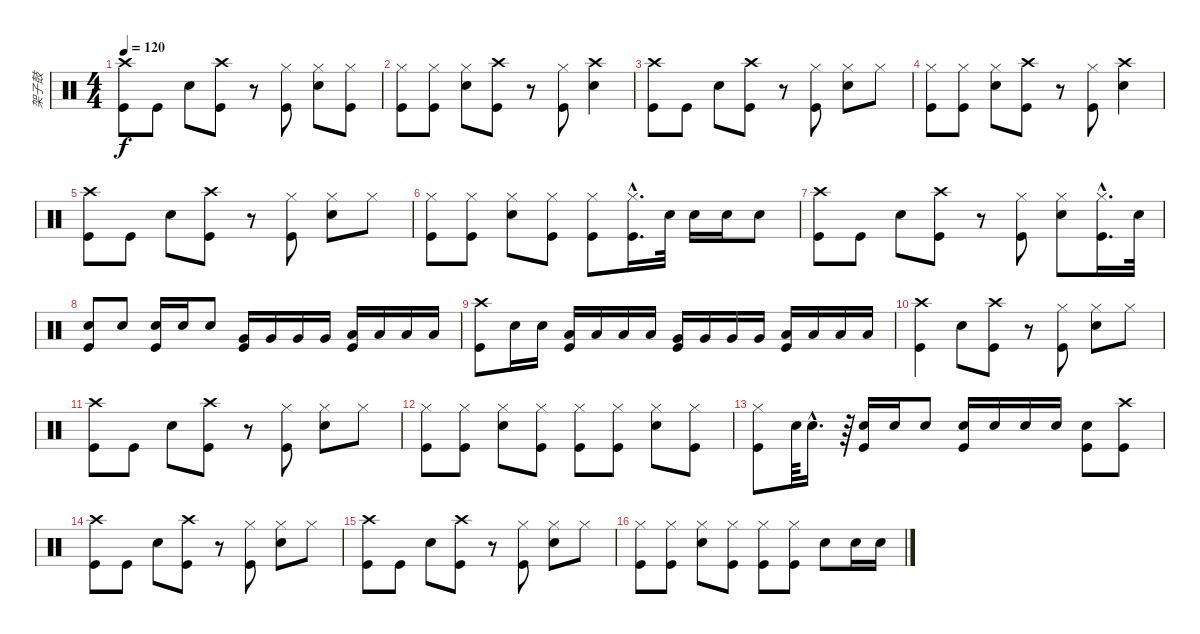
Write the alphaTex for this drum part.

\track ("架子鼓" "架子鼓") {instrument percussion}
\staff {score}
\articulation defaults
\ts (4 4)
\tempo 120
\clef neutral
\ks c
("Crash high (hit)" "Kick (hit)").8{dy f} "Kick (hit)".8 "Snare (hit) 2".8 ("Crash high (hit)" "Kick (hit)").8 r.8 ("Hi-Hat (closed)" "Kick (hit)").8 ("Hi-Hat (closed)" "Snare (hit) 2").8 ("Hi-Hat (closed)" "Kick (hit)").8 |
("Hi-Hat (closed)" "Kick (hit)").8 ("Hi-Hat (closed)" "Kick (hit)").8 ("Hi-Hat (closed)" "Snare (hit) 2").8 ("Crash high (hit)" "Kick (hit)").8 r.8 ("Hi-Hat (closed)" "Kick (hit)").8 ("Crash high (hit)" "Snare (hit) 2").4 |
("Crash high (hit)" "Kick (hit)").8 "Kick (hit)".8 "Snare (hit) 2".8 ("Crash high (hit)" "Kick (hit)").8 r.8 ("Hi-Hat (closed)" "Kick (hit)").8 ("Hi-Hat (closed)" "Snare (hit) 2").8 "Hi-Hat (closed)".8 |
("Hi-Hat (closed)" "Kick (hit)").8 ("Hi-Hat (closed)" "Kick (hit)").8 ("Hi-Hat (closed)" "Snare (hit) 2").8 ("Crash high (hit)" "Kick (hit)").8 r.8 ("Hi-Hat (closed)" "Kick (hit)").8 ("Crash high (hit)" "Snare (hit) 2").4 |
("Crash high (hit)" "Kick (hit)").8 "Kick (hit)".8 "Snare (hit) 2".8 ("Crash high (hit)" "Kick (hit)").8 r.8 ("Hi-Hat (closed)" "Kick (hit)").8 ("Hi-Hat (closed)" "Snare (hit) 2").8 "Hi-Hat (closed)".8 |
("Hi-Hat (closed)" "Kick (hit)").8 ("Hi-Hat (closed)" "Kick (hit)").8 ("Hi-Hat (closed)" "Snare (hit) 2").8 ("Hi-Hat (closed)" "Kick (hit)").8 ("Hi-Hat (closed)" "Kick (hit)").8 ("Hi-Hat (closed)"{hac} "Kick (hit)"{hac}).16{d} "Snare (hit) 2".32 "Snare (hit) 2".16 "Snare (hit) 2".16 "Snare (hit) 2".8 |
("Crash high (hit)" "Kick (hit)").8 "Kick (hit)".8 "Snare (hit) 2".8 ("Crash high (hit)" "Kick (hit)").8 r.8 ("Hi-Hat (closed)" "Kick (hit)").8 ("Hi-Hat (closed)" "Snare (hit) 2").8 ("Hi-Hat (closed)"{hac} "Kick (hit)"{hac}).16{d} "Snare (hit) 2".32 |
("Snare (hit) 2" "Kick (hit)").8 "Snare (hit) 2".8 ("Snare (hit) 2" "Kick (hit)").16 "Snare (hit) 2".16 "Snare (hit) 2".8 ("Kick (hit)" "Very Low Tom (hit)").16 "Very Low Tom (hit)".16 "Very Low Tom (hit)".16 "Very Low Tom (hit)".16 ("Kick (hit)" "Low Floor Tom (hit)").16 "Low Floor Tom (hit)".16 "Low Floor Tom (hit)".16 "Low Floor Tom (hit)".16 |
("Crash high (hit)" "Kick (hit)").8 "Snare (hit) 2".16 "Snare (hit) 2".16 ("Kick (hit)" "Low Tom (hit)").16 "Low Tom (hit)".16 "Low Tom (hit)".16 "Low Tom (hit)".16 ("Kick (hit)" "Very Low Tom (hit)").16 "Very Low Tom (hit)".16 "Very Low Tom (hit)".16 "Very Low Tom (hit)".16 ("Kick (hit)" "Low Floor Tom (hit)").16 "Low Floor Tom (hit)".16 "Low Floor Tom (hit)".16 "Low Floor Tom (hit)".16 |
("Crash high (hit)" "Kick (hit)").4 "Snare (hit) 2".8 ("Crash high (hit)" "Kick (hit)").8 r.8 ("Hi-Hat (closed)" "Kick (hit)").8 ("Hi-Hat (closed)" "Snare (hit) 2").8 "Hi-Hat (closed)".8 |
("Crash high (hit)" "Kick (hit)").8 "Kick (hit)".8 "Snare (hit) 2".8 ("Crash high (hit)" "Kick (hit)").8 r.8 ("Hi-Hat (closed)" "Kick (hit)").8 ("Hi-Hat (closed)" "Snare (hit) 2").8 "Hi-Hat (closed)".8 |
("Hi-Hat (closed)" "Kick (hit)").8 ("Hi-Hat (closed)" "Kick (hit)").8 ("Hi-Hat (closed)" "Snare (hit) 2").8 ("Hi-Hat (closed)" "Kick (hit)").8 ("Hi-Hat (closed)" "Kick (hit)").8 ("Hi-Hat (closed)" "Kick (hit)").8 ("Hi-Hat (closed)" "Snare (hit) 2").8 ("Hi-Hat (closed)" "Kick (hit)").8 |
("Hi-Hat (closed)" "Kick (hit)").8 "Snare (hit) 2".64 "Snare (hit) 2"{hac}.16{d} r.64 ("Snare (hit) 2" "Kick (hit)").16 "Snare (hit) 2".16 "Snare (hit) 2".8 ("Snare (hit) 2" "Kick (hit)").16 "Snare (hit) 2".16 "Snare (hit) 2".16 "Snare (hit) 2".16 ("Snare (hit) 2" "Kick (hit)").8 ("Crash high (hit)" "Kick (hit)").8 |
("Crash high (hit)" "Kick (hit)").8 "Kick (hit)".8 "Snare (hit) 2".8 ("Crash high (hit)" "Kick (hit)").8 r.8 ("Hi-Hat (closed)" "Kick (hit)").8 ("Hi-Hat (closed)" "Snare (hit) 2").8 "Hi-Hat (closed)".8 |
("Crash high (hit)" "Kick (hit)").8 "Kick (hit)".8 "Snare (hit) 2".8 ("Crash high (hit)" "Kick (hit)").8 r.8 ("Hi-Hat (closed)" "Kick (hit)").8 ("Hi-Hat (closed)" "Snare (hit) 2").8 "Hi-Hat (closed)".8 |
("Hi-Hat (closed)" "Kick (hit)").8 ("Hi-Hat (closed)" "Kick (hit)").8 ("Hi-Hat (closed)" "Snare (hit) 2").8 ("Hi-Hat (closed)" "Kick (hit)").8 ("Hi-Hat (closed)" "Kick (hit)").8 ("Hi-Hat (closed)" "Kick (hit)").8 "Snare (hit) 2".8 "Snare (hit) 2".16 "Snare (hit) 2".16
